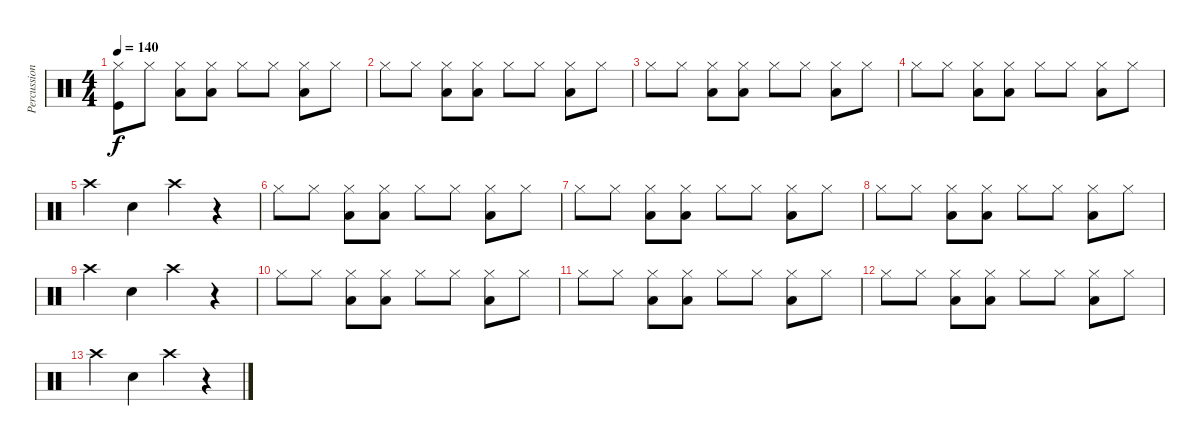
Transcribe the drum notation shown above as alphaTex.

\track ("Percussion" "Percussion") {instrument percussion}
\staff {score}
\articulation defaults
\ts (4 4)
\tempo 140
\clef neutral
\ks c
("Hi-Hat (closed)" "Kick (hit)").8{dy f} "Hi-Hat (closed)".8 ("Hi-Hat (closed)" "Low Tom (hit)").8 ("Hi-Hat (closed)" "Low Tom (hit)").8 "Hi-Hat (closed)".8 "Hi-Hat (closed)".8 ("Hi-Hat (closed)" "Low Tom (hit)").8 "Hi-Hat (closed)".8 |
"Hi-Hat (closed)".8 "Hi-Hat (closed)".8 ("Hi-Hat (closed)" "Low Tom (hit)").8 ("Hi-Hat (closed)" "Low Tom (hit)").8 "Hi-Hat (closed)".8 "Hi-Hat (closed)".8 ("Hi-Hat (closed)" "Low Tom (hit)").8 "Hi-Hat (closed)".8 |
"Hi-Hat (closed)".8 "Hi-Hat (closed)".8 ("Hi-Hat (closed)" "Low Tom (hit)").8 ("Hi-Hat (closed)" "Low Tom (hit)").8 "Hi-Hat (closed)".8 "Hi-Hat (closed)".8 ("Hi-Hat (closed)" "Low Tom (hit)").8 "Hi-Hat (closed)".8 |
"Hi-Hat (closed)".8 "Hi-Hat (closed)".8 ("Hi-Hat (closed)" "Low Tom (hit)").8 ("Hi-Hat (closed)" "Low Tom (hit)").8 "Hi-Hat (closed)".8 "Hi-Hat (closed)".8 ("Hi-Hat (closed)" "Low Tom (hit)").8 "Hi-Hat (closed)".8 |
"Crash high (hit)".4 "Snare (hit) 2".4 "Crash high (hit)".4 r.4 |
"Hi-Hat (closed)".8 "Hi-Hat (closed)".8 ("Hi-Hat (closed)" "Low Tom (hit)").8 ("Hi-Hat (closed)" "Low Tom (hit)").8 "Hi-Hat (closed)".8 "Hi-Hat (closed)".8 ("Hi-Hat (closed)" "Low Tom (hit)").8 "Hi-Hat (closed)".8 |
"Hi-Hat (closed)".8 "Hi-Hat (closed)".8 ("Hi-Hat (closed)" "Low Tom (hit)").8 ("Hi-Hat (closed)" "Low Tom (hit)").8 "Hi-Hat (closed)".8 "Hi-Hat (closed)".8 ("Hi-Hat (closed)" "Low Tom (hit)").8 "Hi-Hat (closed)".8 |
"Hi-Hat (closed)".8 "Hi-Hat (closed)".8 ("Hi-Hat (closed)" "Low Tom (hit)").8 ("Hi-Hat (closed)" "Low Tom (hit)").8 "Hi-Hat (closed)".8 "Hi-Hat (closed)".8 ("Hi-Hat (closed)" "Low Tom (hit)").8 "Hi-Hat (closed)".8 |
"Crash high (hit)".4 "Snare (hit) 2".4 "Crash high (hit)".4 r.4 |
"Hi-Hat (closed)".8 "Hi-Hat (closed)".8 ("Hi-Hat (closed)" "Low Tom (hit)").8 ("Hi-Hat (closed)" "Low Tom (hit)").8 "Hi-Hat (closed)".8 "Hi-Hat (closed)".8 ("Hi-Hat (closed)" "Low Tom (hit)").8 "Hi-Hat (closed)".8 |
"Hi-Hat (closed)".8 "Hi-Hat (closed)".8 ("Hi-Hat (closed)" "Low Tom (hit)").8 ("Hi-Hat (closed)" "Low Tom (hit)").8 "Hi-Hat (closed)".8 "Hi-Hat (closed)".8 ("Hi-Hat (closed)" "Low Tom (hit)").8 "Hi-Hat (closed)".8 |
"Hi-Hat (closed)".8 "Hi-Hat (closed)".8 ("Hi-Hat (closed)" "Low Tom (hit)").8 ("Hi-Hat (closed)" "Low Tom (hit)").8 "Hi-Hat (closed)".8 "Hi-Hat (closed)".8 ("Hi-Hat (closed)" "Low Tom (hit)").8 "Hi-Hat (closed)".8 |
"Crash high (hit)".4 "Snare (hit) 2".4 "Crash high (hit)".4 r.4
